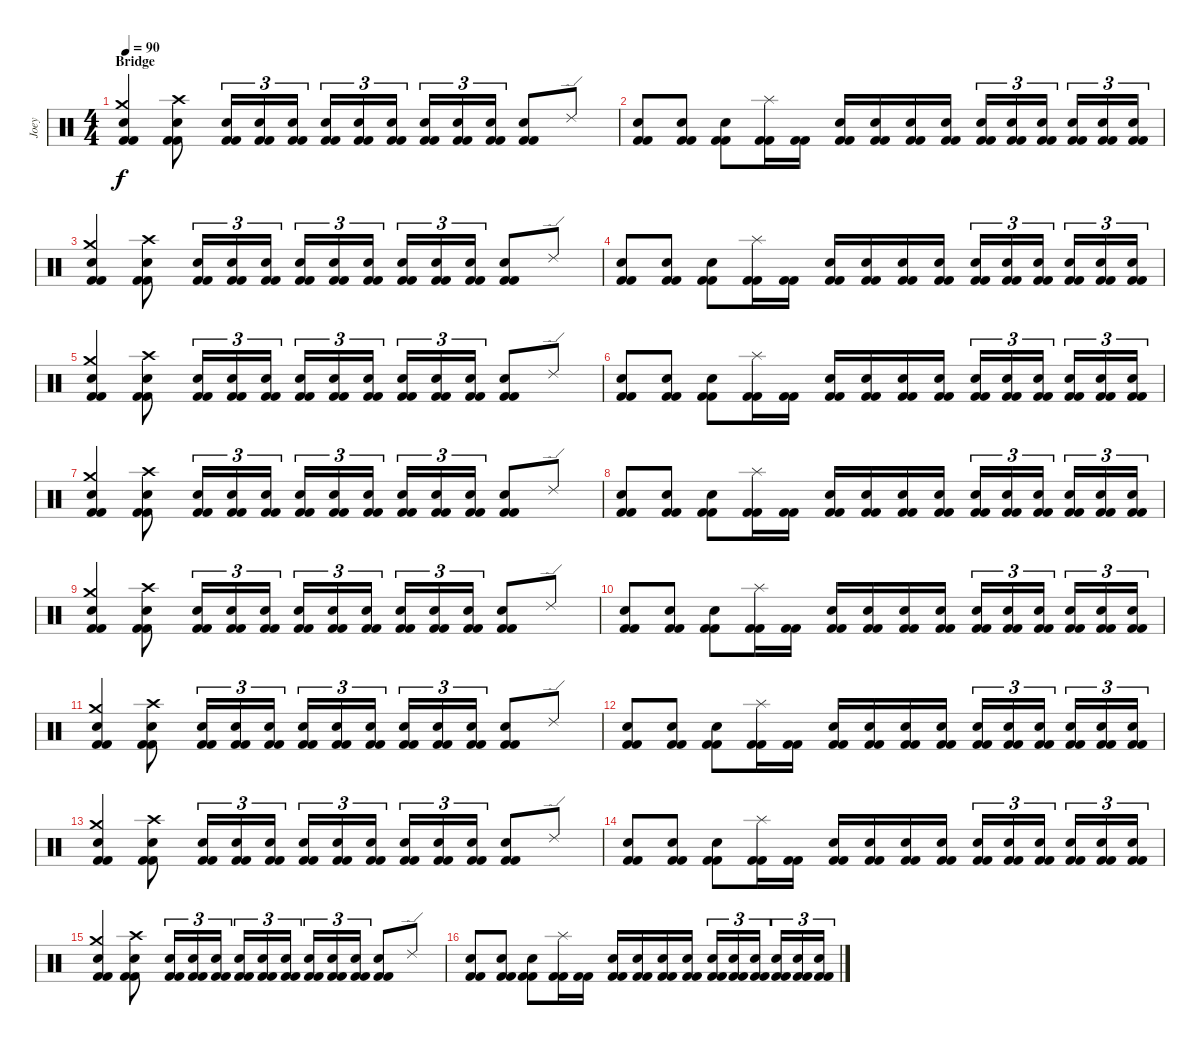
\track ("Joey" "Joey") {instrument percussion}
\staff {score}
\articulation defaults
\ts (4 4)
\section ("" "Bridge")
\tempo 90
\clef neutral
\ks c
("Electric Snare (hit)" "Crash medium (hit)" "Kick (hit) 2" "Kick (hit) 2").4{dy f} ("Electric Snare (hit)" "Crash high (hit)" "Kick (hit) 2" "Kick (hit) 2").8 ("Electric Snare (hit)" "Kick (hit) 2" "Kick (hit) 2").16{tu (3 2)} ("Electric Snare (hit)" "Kick (hit) 2" "Kick (hit) 2").16{tu (3 2)} ("Electric Snare (hit)" "Kick (hit) 2" "Kick (hit) 2").16{tu (3 2)} ("Electric Snare (hit)" "Kick (hit) 2" "Kick (hit) 2").16{tu (3 2)} ("Electric Snare (hit)" "Kick (hit) 2" "Kick (hit) 2").16{tu (3 2)} ("Electric Snare (hit)" "Kick (hit) 2" "Kick (hit) 2").16{tu (3 2) beam splitsecondary} ("Electric Snare (hit)" "Kick (hit) 2" "Kick (hit) 2").16{tu (3 2)} ("Electric Snare (hit)" "Kick (hit) 2" "Kick (hit) 2").16{tu (3 2)} ("Electric Snare (hit)" "Kick (hit) 2" "Kick (hit) 2").16{tu (3 2)} ("Electric Snare (hit)" "Kick (hit) 2" "Kick (hit) 2").8 "Ride (edge) 2".8 |
("Electric Snare (hit)" "Kick (hit) 2" "Kick (hit) 2").8 ("Electric Snare (hit)" "Kick (hit) 2" "Kick (hit) 2").8 ("Electric Snare (hit)" "Kick (hit) 2" "Kick (hit) 2").8 ("Splash (hit)" "Kick (hit) 2" "Kick (hit) 2").16 ("Kick (hit) 2" "Kick (hit) 2").16 ("Electric Snare (hit)" "Kick (hit) 2" "Kick (hit) 2").16 ("Electric Snare (hit)" "Kick (hit) 2" "Kick (hit) 2").16 ("Electric Snare (hit)" "Kick (hit) 2" "Kick (hit) 2").16 ("Electric Snare (hit)" "Kick (hit) 2" "Kick (hit) 2").16 ("Electric Snare (hit)" "Kick (hit) 2" "Kick (hit) 2").16{tu (3 2)} ("Electric Snare (hit)" "Kick (hit) 2" "Kick (hit) 2").16{tu (3 2)} ("Electric Snare (hit)" "Kick (hit) 2" "Kick (hit) 2").16{tu (3 2) beam splitsecondary} ("Electric Snare (hit)" "Kick (hit) 2" "Kick (hit) 2").16{tu (3 2)} ("Electric Snare (hit)" "Kick (hit) 2" "Kick (hit) 2").16{tu (3 2)} ("Electric Snare (hit)" "Kick (hit) 2" "Kick (hit) 2").16{tu (3 2)} |
("Electric Snare (hit)" "Crash medium (hit)" "Kick (hit) 2" "Kick (hit) 2").4 ("Electric Snare (hit)" "Crash high (hit)" "Kick (hit) 2" "Kick (hit) 2").8 ("Electric Snare (hit)" "Kick (hit) 2" "Kick (hit) 2").16{tu (3 2)} ("Electric Snare (hit)" "Kick (hit) 2" "Kick (hit) 2").16{tu (3 2)} ("Electric Snare (hit)" "Kick (hit) 2" "Kick (hit) 2").16{tu (3 2)} ("Electric Snare (hit)" "Kick (hit) 2" "Kick (hit) 2").16{tu (3 2)} ("Electric Snare (hit)" "Kick (hit) 2" "Kick (hit) 2").16{tu (3 2)} ("Electric Snare (hit)" "Kick (hit) 2" "Kick (hit) 2").16{tu (3 2) beam splitsecondary} ("Electric Snare (hit)" "Kick (hit) 2" "Kick (hit) 2").16{tu (3 2)} ("Electric Snare (hit)" "Kick (hit) 2" "Kick (hit) 2").16{tu (3 2)} ("Electric Snare (hit)" "Kick (hit) 2" "Kick (hit) 2").16{tu (3 2)} ("Electric Snare (hit)" "Kick (hit) 2" "Kick (hit) 2").8 "Ride (edge) 2".8 |
("Electric Snare (hit)" "Kick (hit) 2" "Kick (hit) 2").8 ("Electric Snare (hit)" "Kick (hit) 2" "Kick (hit) 2").8 ("Electric Snare (hit)" "Kick (hit) 2" "Kick (hit) 2").8 ("Splash (hit)" "Kick (hit) 2" "Kick (hit) 2").16 ("Kick (hit) 2" "Kick (hit) 2").16 ("Electric Snare (hit)" "Kick (hit) 2" "Kick (hit) 2").16 ("Electric Snare (hit)" "Kick (hit) 2" "Kick (hit) 2").16 ("Electric Snare (hit)" "Kick (hit) 2" "Kick (hit) 2").16 ("Electric Snare (hit)" "Kick (hit) 2" "Kick (hit) 2").16 ("Electric Snare (hit)" "Kick (hit) 2" "Kick (hit) 2").16{tu (3 2)} ("Electric Snare (hit)" "Kick (hit) 2" "Kick (hit) 2").16{tu (3 2)} ("Electric Snare (hit)" "Kick (hit) 2" "Kick (hit) 2").16{tu (3 2) beam splitsecondary} ("Electric Snare (hit)" "Kick (hit) 2" "Kick (hit) 2").16{tu (3 2)} ("Electric Snare (hit)" "Kick (hit) 2" "Kick (hit) 2").16{tu (3 2)} ("Electric Snare (hit)" "Kick (hit) 2" "Kick (hit) 2").16{tu (3 2)} |
("Electric Snare (hit)" "Crash medium (hit)" "Kick (hit) 2" "Kick (hit) 2").4 ("Electric Snare (hit)" "Crash high (hit)" "Kick (hit) 2" "Kick (hit) 2").8 ("Electric Snare (hit)" "Kick (hit) 2" "Kick (hit) 2").16{tu (3 2)} ("Electric Snare (hit)" "Kick (hit) 2" "Kick (hit) 2").16{tu (3 2)} ("Electric Snare (hit)" "Kick (hit) 2" "Kick (hit) 2").16{tu (3 2)} ("Electric Snare (hit)" "Kick (hit) 2" "Kick (hit) 2").16{tu (3 2)} ("Electric Snare (hit)" "Kick (hit) 2" "Kick (hit) 2").16{tu (3 2)} ("Electric Snare (hit)" "Kick (hit) 2" "Kick (hit) 2").16{tu (3 2) beam splitsecondary} ("Electric Snare (hit)" "Kick (hit) 2" "Kick (hit) 2").16{tu (3 2)} ("Electric Snare (hit)" "Kick (hit) 2" "Kick (hit) 2").16{tu (3 2)} ("Electric Snare (hit)" "Kick (hit) 2" "Kick (hit) 2").16{tu (3 2)} ("Electric Snare (hit)" "Kick (hit) 2" "Kick (hit) 2").8 "Ride (edge) 2".8 |
("Electric Snare (hit)" "Kick (hit) 2" "Kick (hit) 2").8 ("Electric Snare (hit)" "Kick (hit) 2" "Kick (hit) 2").8 ("Electric Snare (hit)" "Kick (hit) 2" "Kick (hit) 2").8 ("Splash (hit)" "Kick (hit) 2" "Kick (hit) 2").16 ("Kick (hit) 2" "Kick (hit) 2").16 ("Electric Snare (hit)" "Kick (hit) 2" "Kick (hit) 2").16 ("Electric Snare (hit)" "Kick (hit) 2" "Kick (hit) 2").16 ("Electric Snare (hit)" "Kick (hit) 2" "Kick (hit) 2").16 ("Electric Snare (hit)" "Kick (hit) 2" "Kick (hit) 2").16 ("Electric Snare (hit)" "Kick (hit) 2" "Kick (hit) 2").16{tu (3 2)} ("Electric Snare (hit)" "Kick (hit) 2" "Kick (hit) 2").16{tu (3 2)} ("Electric Snare (hit)" "Kick (hit) 2" "Kick (hit) 2").16{tu (3 2) beam splitsecondary} ("Electric Snare (hit)" "Kick (hit) 2" "Kick (hit) 2").16{tu (3 2)} ("Electric Snare (hit)" "Kick (hit) 2" "Kick (hit) 2").16{tu (3 2)} ("Electric Snare (hit)" "Kick (hit) 2" "Kick (hit) 2").16{tu (3 2)} |
("Electric Snare (hit)" "Crash medium (hit)" "Kick (hit) 2" "Kick (hit) 2").4 ("Electric Snare (hit)" "Crash high (hit)" "Kick (hit) 2" "Kick (hit) 2").8 ("Electric Snare (hit)" "Kick (hit) 2" "Kick (hit) 2").16{tu (3 2)} ("Electric Snare (hit)" "Kick (hit) 2" "Kick (hit) 2").16{tu (3 2)} ("Electric Snare (hit)" "Kick (hit) 2" "Kick (hit) 2").16{tu (3 2)} ("Electric Snare (hit)" "Kick (hit) 2" "Kick (hit) 2").16{tu (3 2)} ("Electric Snare (hit)" "Kick (hit) 2" "Kick (hit) 2").16{tu (3 2)} ("Electric Snare (hit)" "Kick (hit) 2" "Kick (hit) 2").16{tu (3 2) beam splitsecondary} ("Electric Snare (hit)" "Kick (hit) 2" "Kick (hit) 2").16{tu (3 2)} ("Electric Snare (hit)" "Kick (hit) 2" "Kick (hit) 2").16{tu (3 2)} ("Electric Snare (hit)" "Kick (hit) 2" "Kick (hit) 2").16{tu (3 2)} ("Electric Snare (hit)" "Kick (hit) 2" "Kick (hit) 2").8 "Ride (edge) 2".8 |
("Electric Snare (hit)" "Kick (hit) 2" "Kick (hit) 2").8 ("Electric Snare (hit)" "Kick (hit) 2" "Kick (hit) 2").8 ("Electric Snare (hit)" "Kick (hit) 2" "Kick (hit) 2").8 ("Splash (hit)" "Kick (hit) 2" "Kick (hit) 2").16 ("Kick (hit) 2" "Kick (hit) 2").16 ("Electric Snare (hit)" "Kick (hit) 2" "Kick (hit) 2").16 ("Electric Snare (hit)" "Kick (hit) 2" "Kick (hit) 2").16 ("Electric Snare (hit)" "Kick (hit) 2" "Kick (hit) 2").16 ("Electric Snare (hit)" "Kick (hit) 2" "Kick (hit) 2").16 ("Electric Snare (hit)" "Kick (hit) 2" "Kick (hit) 2").16{tu (3 2)} ("Electric Snare (hit)" "Kick (hit) 2" "Kick (hit) 2").16{tu (3 2)} ("Electric Snare (hit)" "Kick (hit) 2" "Kick (hit) 2").16{tu (3 2) beam splitsecondary} ("Electric Snare (hit)" "Kick (hit) 2" "Kick (hit) 2").16{tu (3 2)} ("Electric Snare (hit)" "Kick (hit) 2" "Kick (hit) 2").16{tu (3 2)} ("Electric Snare (hit)" "Kick (hit) 2" "Kick (hit) 2").16{tu (3 2)} |
("Electric Snare (hit)" "Crash medium (hit)" "Kick (hit) 2" "Kick (hit) 2").4 ("Electric Snare (hit)" "Crash high (hit)" "Kick (hit) 2" "Kick (hit) 2").8 ("Electric Snare (hit)" "Kick (hit) 2" "Kick (hit) 2").16{tu (3 2)} ("Electric Snare (hit)" "Kick (hit) 2" "Kick (hit) 2").16{tu (3 2)} ("Electric Snare (hit)" "Kick (hit) 2" "Kick (hit) 2").16{tu (3 2)} ("Electric Snare (hit)" "Kick (hit) 2" "Kick (hit) 2").16{tu (3 2)} ("Electric Snare (hit)" "Kick (hit) 2" "Kick (hit) 2").16{tu (3 2)} ("Electric Snare (hit)" "Kick (hit) 2" "Kick (hit) 2").16{tu (3 2) beam splitsecondary} ("Electric Snare (hit)" "Kick (hit) 2" "Kick (hit) 2").16{tu (3 2)} ("Electric Snare (hit)" "Kick (hit) 2" "Kick (hit) 2").16{tu (3 2)} ("Electric Snare (hit)" "Kick (hit) 2" "Kick (hit) 2").16{tu (3 2)} ("Electric Snare (hit)" "Kick (hit) 2" "Kick (hit) 2").8 "Ride (edge) 2".8 |
("Electric Snare (hit)" "Kick (hit) 2" "Kick (hit) 2").8 ("Electric Snare (hit)" "Kick (hit) 2" "Kick (hit) 2").8 ("Electric Snare (hit)" "Kick (hit) 2" "Kick (hit) 2").8 ("Splash (hit)" "Kick (hit) 2" "Kick (hit) 2").16 ("Kick (hit) 2" "Kick (hit) 2").16 ("Electric Snare (hit)" "Kick (hit) 2" "Kick (hit) 2").16 ("Electric Snare (hit)" "Kick (hit) 2" "Kick (hit) 2").16 ("Electric Snare (hit)" "Kick (hit) 2" "Kick (hit) 2").16 ("Electric Snare (hit)" "Kick (hit) 2" "Kick (hit) 2").16 ("Electric Snare (hit)" "Kick (hit) 2" "Kick (hit) 2").16{tu (3 2)} ("Electric Snare (hit)" "Kick (hit) 2" "Kick (hit) 2").16{tu (3 2)} ("Electric Snare (hit)" "Kick (hit) 2" "Kick (hit) 2").16{tu (3 2) beam splitsecondary} ("Electric Snare (hit)" "Kick (hit) 2" "Kick (hit) 2").16{tu (3 2)} ("Electric Snare (hit)" "Kick (hit) 2" "Kick (hit) 2").16{tu (3 2)} ("Electric Snare (hit)" "Kick (hit) 2" "Kick (hit) 2").16{tu (3 2)} |
("Electric Snare (hit)" "Crash medium (hit)" "Kick (hit) 2" "Kick (hit) 2").4 ("Electric Snare (hit)" "Crash high (hit)" "Kick (hit) 2" "Kick (hit) 2").8 ("Electric Snare (hit)" "Kick (hit) 2" "Kick (hit) 2").16{tu (3 2)} ("Electric Snare (hit)" "Kick (hit) 2" "Kick (hit) 2").16{tu (3 2)} ("Electric Snare (hit)" "Kick (hit) 2" "Kick (hit) 2").16{tu (3 2)} ("Electric Snare (hit)" "Kick (hit) 2" "Kick (hit) 2").16{tu (3 2)} ("Electric Snare (hit)" "Kick (hit) 2" "Kick (hit) 2").16{tu (3 2)} ("Electric Snare (hit)" "Kick (hit) 2" "Kick (hit) 2").16{tu (3 2) beam splitsecondary} ("Electric Snare (hit)" "Kick (hit) 2" "Kick (hit) 2").16{tu (3 2)} ("Electric Snare (hit)" "Kick (hit) 2" "Kick (hit) 2").16{tu (3 2)} ("Electric Snare (hit)" "Kick (hit) 2" "Kick (hit) 2").16{tu (3 2)} ("Electric Snare (hit)" "Kick (hit) 2" "Kick (hit) 2").8 "Ride (edge) 2".8 |
("Electric Snare (hit)" "Kick (hit) 2" "Kick (hit) 2").8 ("Electric Snare (hit)" "Kick (hit) 2" "Kick (hit) 2").8 ("Electric Snare (hit)" "Kick (hit) 2" "Kick (hit) 2").8 ("Splash (hit)" "Kick (hit) 2" "Kick (hit) 2").16 ("Kick (hit) 2" "Kick (hit) 2").16 ("Electric Snare (hit)" "Kick (hit) 2" "Kick (hit) 2").16 ("Electric Snare (hit)" "Kick (hit) 2" "Kick (hit) 2").16 ("Electric Snare (hit)" "Kick (hit) 2" "Kick (hit) 2").16 ("Electric Snare (hit)" "Kick (hit) 2" "Kick (hit) 2").16 ("Electric Snare (hit)" "Kick (hit) 2" "Kick (hit) 2").16{tu (3 2)} ("Electric Snare (hit)" "Kick (hit) 2" "Kick (hit) 2").16{tu (3 2)} ("Electric Snare (hit)" "Kick (hit) 2" "Kick (hit) 2").16{tu (3 2) beam splitsecondary} ("Electric Snare (hit)" "Kick (hit) 2" "Kick (hit) 2").16{tu (3 2)} ("Electric Snare (hit)" "Kick (hit) 2" "Kick (hit) 2").16{tu (3 2)} ("Electric Snare (hit)" "Kick (hit) 2" "Kick (hit) 2").16{tu (3 2)} |
("Electric Snare (hit)" "Crash medium (hit)" "Kick (hit) 2" "Kick (hit) 2").4 ("Electric Snare (hit)" "Crash high (hit)" "Kick (hit) 2" "Kick (hit) 2").8 ("Electric Snare (hit)" "Kick (hit) 2" "Kick (hit) 2").16{tu (3 2)} ("Electric Snare (hit)" "Kick (hit) 2" "Kick (hit) 2").16{tu (3 2)} ("Electric Snare (hit)" "Kick (hit) 2" "Kick (hit) 2").16{tu (3 2)} ("Electric Snare (hit)" "Kick (hit) 2" "Kick (hit) 2").16{tu (3 2)} ("Electric Snare (hit)" "Kick (hit) 2" "Kick (hit) 2").16{tu (3 2)} ("Electric Snare (hit)" "Kick (hit) 2" "Kick (hit) 2").16{tu (3 2) beam splitsecondary} ("Electric Snare (hit)" "Kick (hit) 2" "Kick (hit) 2").16{tu (3 2)} ("Electric Snare (hit)" "Kick (hit) 2" "Kick (hit) 2").16{tu (3 2)} ("Electric Snare (hit)" "Kick (hit) 2" "Kick (hit) 2").16{tu (3 2)} ("Electric Snare (hit)" "Kick (hit) 2" "Kick (hit) 2").8 "Ride (edge) 2".8 |
("Electric Snare (hit)" "Kick (hit) 2" "Kick (hit) 2").8 ("Electric Snare (hit)" "Kick (hit) 2" "Kick (hit) 2").8 ("Electric Snare (hit)" "Kick (hit) 2" "Kick (hit) 2").8 ("Splash (hit)" "Kick (hit) 2" "Kick (hit) 2").16 ("Kick (hit) 2" "Kick (hit) 2").16 ("Electric Snare (hit)" "Kick (hit) 2" "Kick (hit) 2").16 ("Electric Snare (hit)" "Kick (hit) 2" "Kick (hit) 2").16 ("Electric Snare (hit)" "Kick (hit) 2" "Kick (hit) 2").16 ("Electric Snare (hit)" "Kick (hit) 2" "Kick (hit) 2").16 ("Electric Snare (hit)" "Kick (hit) 2" "Kick (hit) 2").16{tu (3 2)} ("Electric Snare (hit)" "Kick (hit) 2" "Kick (hit) 2").16{tu (3 2)} ("Electric Snare (hit)" "Kick (hit) 2" "Kick (hit) 2").16{tu (3 2) beam splitsecondary} ("Electric Snare (hit)" "Kick (hit) 2" "Kick (hit) 2").16{tu (3 2)} ("Electric Snare (hit)" "Kick (hit) 2" "Kick (hit) 2").16{tu (3 2)} ("Electric Snare (hit)" "Kick (hit) 2" "Kick (hit) 2").16{tu (3 2)} |
("Electric Snare (hit)" "Crash medium (hit)" "Kick (hit) 2" "Kick (hit) 2").4 ("Electric Snare (hit)" "Crash high (hit)" "Kick (hit) 2" "Kick (hit) 2").8 ("Electric Snare (hit)" "Kick (hit) 2" "Kick (hit) 2").16{tu (3 2)} ("Electric Snare (hit)" "Kick (hit) 2" "Kick (hit) 2").16{tu (3 2)} ("Electric Snare (hit)" "Kick (hit) 2" "Kick (hit) 2").16{tu (3 2)} ("Electric Snare (hit)" "Kick (hit) 2" "Kick (hit) 2").16{tu (3 2)} ("Electric Snare (hit)" "Kick (hit) 2" "Kick (hit) 2").16{tu (3 2)} ("Electric Snare (hit)" "Kick (hit) 2" "Kick (hit) 2").16{tu (3 2) beam splitsecondary} ("Electric Snare (hit)" "Kick (hit) 2" "Kick (hit) 2").16{tu (3 2)} ("Electric Snare (hit)" "Kick (hit) 2" "Kick (hit) 2").16{tu (3 2)} ("Electric Snare (hit)" "Kick (hit) 2" "Kick (hit) 2").16{tu (3 2)} ("Electric Snare (hit)" "Kick (hit) 2" "Kick (hit) 2").8 "Ride (edge) 2".8 |
("Electric Snare (hit)" "Kick (hit) 2" "Kick (hit) 2").8 ("Electric Snare (hit)" "Kick (hit) 2" "Kick (hit) 2").8 ("Electric Snare (hit)" "Kick (hit) 2" "Kick (hit) 2").8 ("Splash (hit)" "Kick (hit) 2" "Kick (hit) 2").16 ("Kick (hit) 2" "Kick (hit) 2").16 ("Electric Snare (hit)" "Kick (hit) 2" "Kick (hit) 2").16 ("Electric Snare (hit)" "Kick (hit) 2" "Kick (hit) 2").16 ("Electric Snare (hit)" "Kick (hit) 2" "Kick (hit) 2").16 ("Electric Snare (hit)" "Kick (hit) 2" "Kick (hit) 2").16 ("Electric Snare (hit)" "Kick (hit) 2" "Kick (hit) 2").16{tu (3 2)} ("Electric Snare (hit)" "Kick (hit) 2" "Kick (hit) 2").16{tu (3 2)} ("Electric Snare (hit)" "Kick (hit) 2" "Kick (hit) 2").16{tu (3 2) beam splitsecondary} ("Electric Snare (hit)" "Kick (hit) 2" "Kick (hit) 2").16{tu (3 2)} ("Electric Snare (hit)" "Kick (hit) 2" "Kick (hit) 2").16{tu (3 2)} ("Electric Snare (hit)" "Kick (hit) 2" "Kick (hit) 2").16{tu (3 2)}
